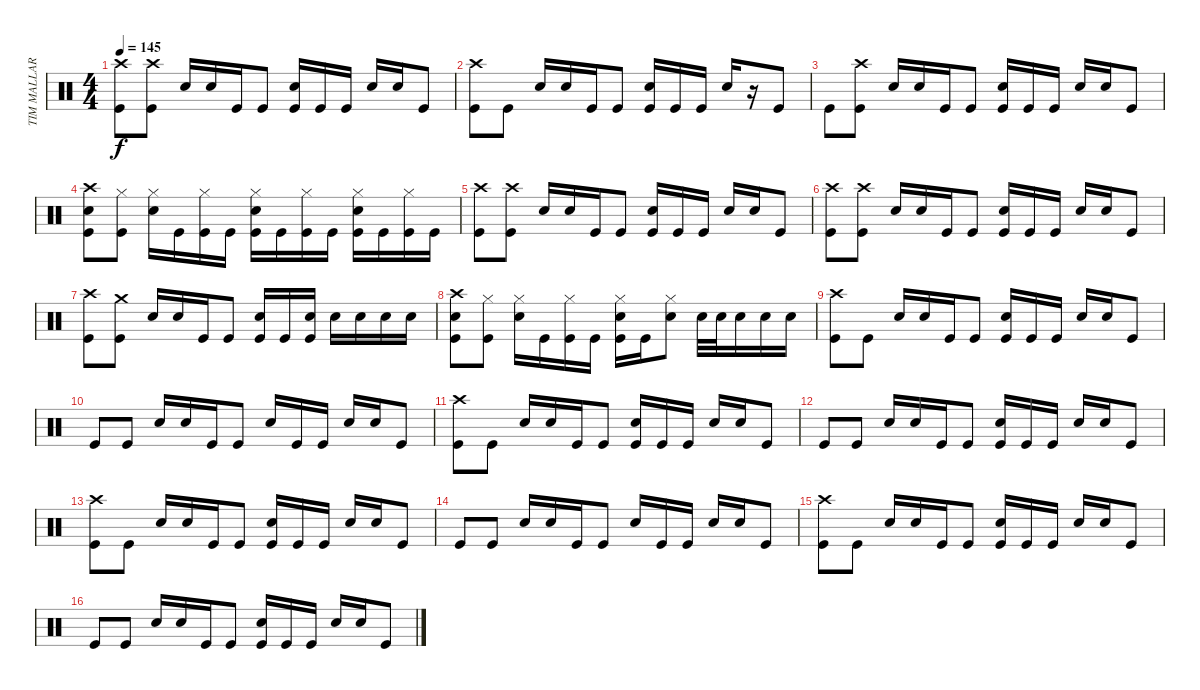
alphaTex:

\track ("TIM MALLARE - drums" "TIM MALLAR") {instrument percussion}
\staff {score}
\articulation defaults
\ts (4 4)
\tempo 145
\clef neutral
\ks c
("Crash high (hit)" "Kick (hit)").8{dy f} ("Crash high (hit)" "Kick (hit)").8 "Electric Snare (hit)".16 "Electric Snare (hit)".16 "Kick (hit)".16 "Kick (hit)".8 ("Electric Snare (hit)" "Kick (hit)").16 "Kick (hit)".16 "Kick (hit)".16 "Electric Snare (hit)".16 "Electric Snare (hit)".16 "Kick (hit)".8 |
("Crash high (hit)" "Kick (hit)").8 "Kick (hit)".8 "Electric Snare (hit)".16 "Electric Snare (hit)".16 "Kick (hit)".16 "Kick (hit)".8 ("Electric Snare (hit)" "Kick (hit)").16 "Kick (hit)".16 "Kick (hit)".16 "Electric Snare (hit)".16 r.16 "Kick (hit)".8 |
"Kick (hit)".8 ("Crash high (hit)" "Kick (hit)").8 "Electric Snare (hit)".16 "Electric Snare (hit)".16 "Kick (hit)".16 "Kick (hit)".8 ("Electric Snare (hit)" "Kick (hit)").16 "Kick (hit)".16 "Kick (hit)".16 "Electric Snare (hit)".16 "Electric Snare (hit)".16 "Kick (hit)".8 |
("Crash high (hit)" "Electric Snare (hit)" "Kick (hit)").8 ("Hi-Hat (closed)" "Kick (hit)").8 ("Hi-Hat (closed)" "Electric Snare (hit)").16 "Kick (hit)".16 ("Hi-Hat (closed)" "Kick (hit)").16 "Kick (hit)".16 ("Hi-Hat (closed)" "Electric Snare (hit)" "Kick (hit)").16 "Kick (hit)".16 ("Hi-Hat (closed)" "Kick (hit)").16 "Kick (hit)".16 ("Hi-Hat (closed)" "Electric Snare (hit)" "Kick (hit)").16 "Kick (hit)".16 ("Hi-Hat (closed)" "Kick (hit)").16 "Kick (hit)".16 |
("Crash high (hit)" "Kick (hit)").8 ("Crash high (hit)" "Kick (hit)").8 "Electric Snare (hit)".16 "Electric Snare (hit)".16 "Kick (hit)".16 "Kick (hit)".8 ("Electric Snare (hit)" "Kick (hit)").16 "Kick (hit)".16 "Kick (hit)".16 "Electric Snare (hit)".16 "Electric Snare (hit)".16 "Kick (hit)".8 |
("Crash high (hit)" "Kick (hit)").8 ("Crash high (hit)" "Kick (hit)").8 "Electric Snare (hit)".16 "Electric Snare (hit)".16 "Kick (hit)".16 "Kick (hit)".8 ("Electric Snare (hit)" "Kick (hit)").16 "Kick (hit)".16 "Kick (hit)".16 "Electric Snare (hit)".16 "Electric Snare (hit)".16 "Kick (hit)".8 |
("Crash high (hit)" "Kick (hit)").8 ("Crash medium (hit)" "Kick (hit)").8 "Electric Snare (hit)".16 "Electric Snare (hit)".16 "Kick (hit)".16 "Kick (hit)".8 ("Electric Snare (hit)" "Kick (hit)").16 "Kick (hit)".16 ("Electric Snare (hit)" "Kick (hit)").16 "Electric Snare (hit)".16 "Electric Snare (hit)".16 "Electric Snare (hit)".16 "Electric Snare (hit)".16 |
("Crash high (hit)" "Electric Snare (hit)" "Kick (hit)").8 ("Hi-Hat (closed)" "Kick (hit)").8 ("Hi-Hat (closed)" "Electric Snare (hit)").16 "Kick (hit)".16 ("Hi-Hat (closed)" "Kick (hit)").16 "Kick (hit)".16 ("Hi-Hat (closed)" "Electric Snare (hit)" "Kick (hit)").16 "Kick (hit)".16 ("Hi-Hat (closed)" "Electric Snare (hit)").8 "Electric Snare (hit)".32 "Electric Snare (hit)".32 "Electric Snare (hit)".16 "Electric Snare (hit)".16 "Electric Snare (hit)".16 |
("Crash high (hit)" "Kick (hit)").8 "Kick (hit)".8 "Electric Snare (hit)".16 "Electric Snare (hit)".16 "Kick (hit)".16 "Kick (hit)".8 ("Electric Snare (hit)" "Kick (hit)").16 "Kick (hit)".16 "Kick (hit)".16 "Electric Snare (hit)".16 "Electric Snare (hit)".16 "Kick (hit)".8 |
"Kick (hit)".8 "Kick (hit)".8 "Electric Snare (hit)".16 "Electric Snare (hit)".16 "Kick (hit)".16 "Kick (hit)".8 "Electric Snare (hit)".16 "Kick (hit)".16 "Kick (hit)".16 "Electric Snare (hit)".16 "Electric Snare (hit)".16 "Kick (hit)".8 |
("Crash high (hit)" "Kick (hit)").8 "Kick (hit)".8 "Electric Snare (hit)".16 "Electric Snare (hit)".16 "Kick (hit)".16 "Kick (hit)".8 ("Electric Snare (hit)" "Kick (hit)").16 "Kick (hit)".16 "Kick (hit)".16 "Electric Snare (hit)".16 "Electric Snare (hit)".16 "Kick (hit)".8 |
"Kick (hit)".8 "Kick (hit)".8 "Electric Snare (hit)".16 "Electric Snare (hit)".16 "Kick (hit)".16 "Kick (hit)".8 ("Electric Snare (hit)" "Kick (hit)").16 "Kick (hit)".16 "Kick (hit)".16 "Electric Snare (hit)".16 "Electric Snare (hit)".16 "Kick (hit)".8 |
("Crash high (hit)" "Kick (hit)").8 "Kick (hit)".8 "Electric Snare (hit)".16 "Electric Snare (hit)".16 "Kick (hit)".16 "Kick (hit)".8 ("Electric Snare (hit)" "Kick (hit)").16 "Kick (hit)".16 "Kick (hit)".16 "Electric Snare (hit)".16 "Electric Snare (hit)".16 "Kick (hit)".8 |
"Kick (hit)".8 "Kick (hit)".8 "Electric Snare (hit)".16 "Electric Snare (hit)".16 "Kick (hit)".16 "Kick (hit)".8 "Electric Snare (hit)".16 "Kick (hit)".16 "Kick (hit)".16 "Electric Snare (hit)".16 "Electric Snare (hit)".16 "Kick (hit)".8 |
("Crash high (hit)" "Kick (hit)").8 "Kick (hit)".8 "Electric Snare (hit)".16 "Electric Snare (hit)".16 "Kick (hit)".16 "Kick (hit)".8 ("Electric Snare (hit)" "Kick (hit)").16 "Kick (hit)".16 "Kick (hit)".16 "Electric Snare (hit)".16 "Electric Snare (hit)".16 "Kick (hit)".8 |
"Kick (hit)".8 "Kick (hit)".8 "Electric Snare (hit)".16 "Electric Snare (hit)".16 "Kick (hit)".16 "Kick (hit)".8 ("Electric Snare (hit)" "Kick (hit)").16 "Kick (hit)".16 "Kick (hit)".16 "Electric Snare (hit)".16 "Electric Snare (hit)".16 "Kick (hit)".8
